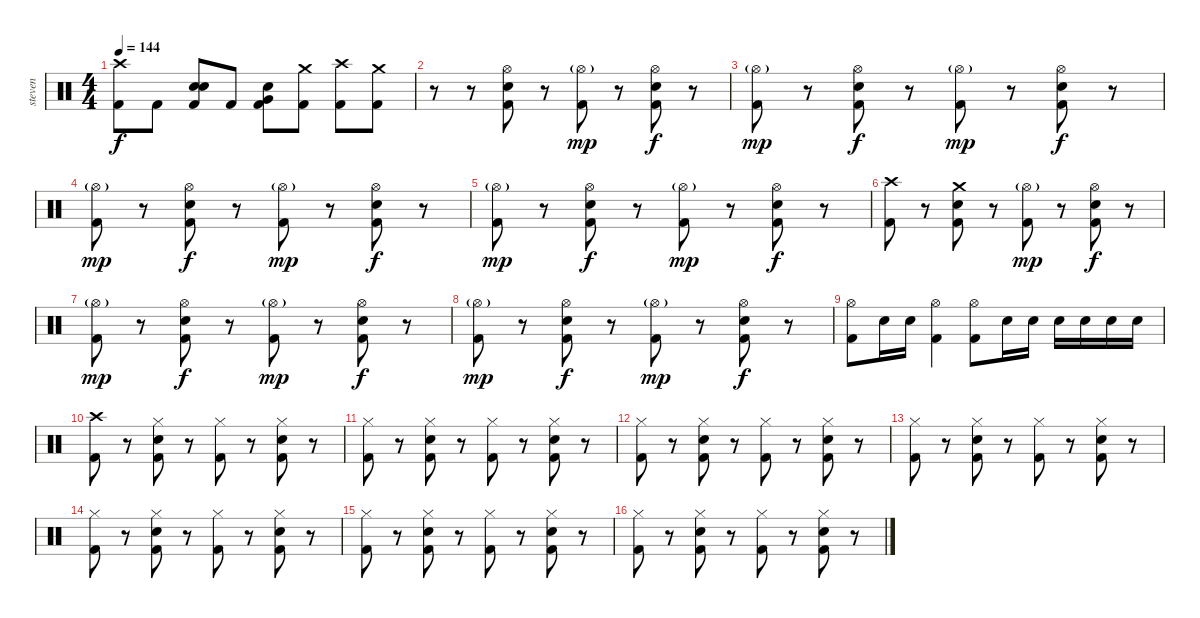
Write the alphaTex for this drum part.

\track ("steven" "steven") {instrument percussion}
\staff {score}
\articulation defaults
\ts (4 4)
\tempo 144
\clef neutral
\ks c
("Crash high (hit)" "Kick (hit) 2").8{dy f} "Kick (hit) 2".8 ("Electric Snare (hit)" "Electric Snare (hit)" "Kick (hit) 2").8 "Kick (hit) 2".8 ("Electric Snare (hit)" "Very Low Tom (hit)" "Kick (hit) 2").8 ("Crash medium (hit)" "Kick (hit) 2").8 ("Crash high (hit)" "Kick (hit) 2").8 ("Crash medium (hit)" "Kick (hit) 2").8 |
r.8 r.8 ("Hi-Hat (open)" "Electric Snare (hit)" "Kick (hit) 2").8 r.8 ("Hi-Hat (open)"{g} "Kick (hit) 2").8{dy mp} r.8 ("Hi-Hat (open)" "Electric Snare (hit)" "Kick (hit) 2").8{dy f} r.8 |
("Hi-Hat (open)"{g} "Kick (hit) 2").8{dy mp} r.8 ("Hi-Hat (open)" "Electric Snare (hit)" "Kick (hit) 2").8{dy f} r.8 ("Hi-Hat (open)"{g} "Kick (hit) 2").8{dy mp} r.8 ("Hi-Hat (open)" "Electric Snare (hit)" "Kick (hit) 2").8{dy f} r.8 |
("Hi-Hat (open)"{g} "Kick (hit) 2").8{dy mp} r.8 ("Hi-Hat (open)" "Electric Snare (hit)" "Kick (hit) 2").8{dy f} r.8 ("Hi-Hat (open)"{g} "Kick (hit) 2").8{dy mp} r.8 ("Hi-Hat (open)" "Electric Snare (hit)" "Kick (hit) 2").8{dy f} r.8 |
("Hi-Hat (open)"{g} "Kick (hit) 2").8{dy mp} r.8 ("Hi-Hat (open)" "Electric Snare (hit)" "Kick (hit) 2").8{dy f} r.8 ("Hi-Hat (open)"{g} "Kick (hit) 2").8{dy mp} r.8 ("Hi-Hat (open)" "Electric Snare (hit)" "Kick (hit) 2").8{dy f} r.8 |
("Crash high (hit)" "Kick (hit) 2").8 r.8 ("Crash medium (hit)" "Electric Snare (hit)" "Kick (hit) 2").8 r.8 ("Hi-Hat (open)"{g} "Kick (hit) 2").8{dy mp} r.8 ("Hi-Hat (open)" "Electric Snare (hit)" "Kick (hit) 2").8{dy f} r.8 |
("Hi-Hat (open)"{g} "Kick (hit) 2").8{dy mp} r.8 ("Hi-Hat (open)" "Electric Snare (hit)" "Kick (hit) 2").8{dy f} r.8 ("Hi-Hat (open)"{g} "Kick (hit) 2").8{dy mp} r.8 ("Hi-Hat (open)" "Electric Snare (hit)" "Kick (hit) 2").8{dy f} r.8 |
("Hi-Hat (open)"{g} "Kick (hit) 2").8{dy mp} r.8 ("Hi-Hat (open)" "Electric Snare (hit)" "Kick (hit) 2").8{dy f} r.8 ("Hi-Hat (open)"{g} "Kick (hit) 2").8{dy mp} r.8 ("Hi-Hat (open)" "Electric Snare (hit)" "Kick (hit) 2").8{dy f} r.8 |
("Hi-Hat (open)" "Kick (hit) 2").8 "Electric Snare (hit)".16 "Electric Snare (hit)".16 ("Hi-Hat (open)" "Kick (hit) 2").4 ("Hi-Hat (open)" "Kick (hit) 2").8 "Electric Snare (hit)".16 "Electric Snare (hit)".16 "Electric Snare (hit)".16 "Electric Snare (hit)".16 "Electric Snare (hit)".16 "Electric Snare (hit)".16 |
("Crash high (hit)" "Kick (hit) 2").8 r.8 ("Hi-Hat (closed)" "Electric Snare (hit)" "Kick (hit) 2").8 r.8 ("Hi-Hat (closed)" "Kick (hit) 2").8 r.8 ("Hi-Hat (closed)" "Electric Snare (hit)" "Kick (hit) 2").8 r.8 |
("Hi-Hat (closed)" "Kick (hit) 2").8 r.8 ("Hi-Hat (closed)" "Electric Snare (hit)" "Kick (hit) 2").8 r.8 ("Hi-Hat (closed)" "Kick (hit) 2").8 r.8 ("Hi-Hat (closed)" "Electric Snare (hit)" "Kick (hit) 2").8 r.8 |
("Hi-Hat (closed)" "Kick (hit) 2").8 r.8 ("Hi-Hat (closed)" "Electric Snare (hit)" "Kick (hit) 2").8 r.8 ("Hi-Hat (closed)" "Kick (hit) 2").8 r.8 ("Hi-Hat (closed)" "Electric Snare (hit)" "Kick (hit) 2").8 r.8 |
("Hi-Hat (closed)" "Kick (hit) 2").8 r.8 ("Hi-Hat (closed)" "Electric Snare (hit)" "Kick (hit) 2").8 r.8 ("Hi-Hat (closed)" "Kick (hit) 2").8 r.8 ("Hi-Hat (closed)" "Electric Snare (hit)" "Kick (hit) 2").8 r.8 |
("Hi-Hat (closed)" "Kick (hit) 2").8 r.8 ("Hi-Hat (closed)" "Electric Snare (hit)" "Kick (hit) 2").8 r.8 ("Hi-Hat (closed)" "Kick (hit) 2").8 r.8 ("Hi-Hat (closed)" "Electric Snare (hit)" "Kick (hit) 2").8 r.8 |
("Hi-Hat (closed)" "Kick (hit) 2").8 r.8 ("Hi-Hat (closed)" "Electric Snare (hit)" "Kick (hit) 2").8 r.8 ("Hi-Hat (closed)" "Kick (hit) 2").8 r.8 ("Hi-Hat (closed)" "Electric Snare (hit)" "Kick (hit) 2").8 r.8 |
("Hi-Hat (closed)" "Kick (hit) 2").8 r.8 ("Hi-Hat (closed)" "Electric Snare (hit)" "Kick (hit) 2").8 r.8 ("Hi-Hat (closed)" "Kick (hit) 2").8 r.8 ("Hi-Hat (closed)" "Electric Snare (hit)" "Kick (hit) 2").8 r.8
